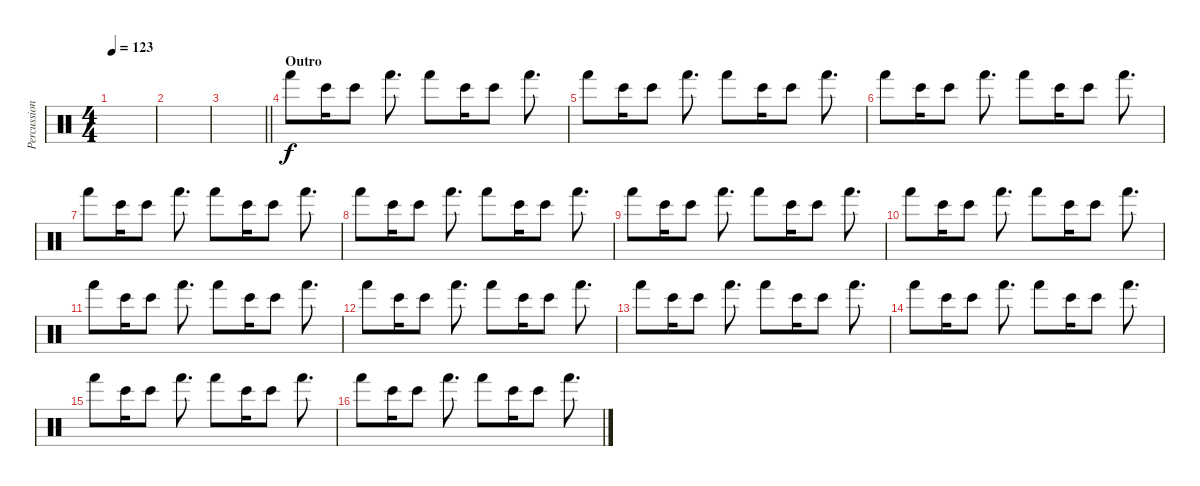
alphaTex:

\track ("Percussion (Mauro Refosco)" "Percussion") {instrument percussion}
\staff {score}
\articulation defaults
\ts (4 4)
\tempo 123
\clef neutral
\ks c
|
|
\barLineRight lightlight
|
\section ("" "Outro")
"Hand (hit)".8 "Bongo High (hit)".16 "Bongo High (hit)".8 "Hand (hit)".8{d} "Hand (hit)".8 "Bongo High (hit)".16 "Bongo High (hit)".8 "Hand (hit)".8{d} |
"Hand (hit)".8 "Bongo High (hit)".16 "Bongo High (hit)".8 "Hand (hit)".8{d} "Hand (hit)".8 "Bongo High (hit)".16 "Bongo High (hit)".8 "Hand (hit)".8{d} |
"Hand (hit)".8 "Bongo High (hit)".16 "Bongo High (hit)".8 "Hand (hit)".8{d} "Hand (hit)".8 "Bongo High (hit)".16 "Bongo High (hit)".8 "Hand (hit)".8{d} |
"Hand (hit)".8 "Bongo High (hit)".16 "Bongo High (hit)".8 "Hand (hit)".8{d} "Hand (hit)".8 "Bongo High (hit)".16 "Bongo High (hit)".8 "Hand (hit)".8{d} |
"Hand (hit)".8 "Bongo High (hit)".16 "Bongo High (hit)".8 "Hand (hit)".8{d} "Hand (hit)".8 "Bongo High (hit)".16 "Bongo High (hit)".8 "Hand (hit)".8{d} |
"Hand (hit)".8 "Bongo High (hit)".16 "Bongo High (hit)".8 "Hand (hit)".8{d} "Hand (hit)".8 "Bongo High (hit)".16 "Bongo High (hit)".8 "Hand (hit)".8{d} |
"Hand (hit)".8 "Bongo High (hit)".16 "Bongo High (hit)".8 "Hand (hit)".8{d} "Hand (hit)".8 "Bongo High (hit)".16 "Bongo High (hit)".8 "Hand (hit)".8{d} |
"Hand (hit)".8 "Bongo High (hit)".16 "Bongo High (hit)".8 "Hand (hit)".8{d} "Hand (hit)".8 "Bongo High (hit)".16 "Bongo High (hit)".8 "Hand (hit)".8{d} |
"Hand (hit)".8 "Bongo High (hit)".16 "Bongo High (hit)".8 "Hand (hit)".8{d} "Hand (hit)".8 "Bongo High (hit)".16 "Bongo High (hit)".8 "Hand (hit)".8{d} |
"Hand (hit)".8 "Bongo High (hit)".16 "Bongo High (hit)".8 "Hand (hit)".8{d} "Hand (hit)".8 "Bongo High (hit)".16 "Bongo High (hit)".8 "Hand (hit)".8{d} |
"Hand (hit)".8 "Bongo High (hit)".16 "Bongo High (hit)".8 "Hand (hit)".8{d} "Hand (hit)".8 "Bongo High (hit)".16 "Bongo High (hit)".8 "Hand (hit)".8{d} |
"Hand (hit)".8 "Bongo High (hit)".16 "Bongo High (hit)".8 "Hand (hit)".8{d} "Hand (hit)".8 "Bongo High (hit)".16 "Bongo High (hit)".8 "Hand (hit)".8{d} |
"Hand (hit)".8 "Bongo High (hit)".16 "Bongo High (hit)".8 "Hand (hit)".8{d} "Hand (hit)".8 "Bongo High (hit)".16 "Bongo High (hit)".8 "Hand (hit)".8{d}
